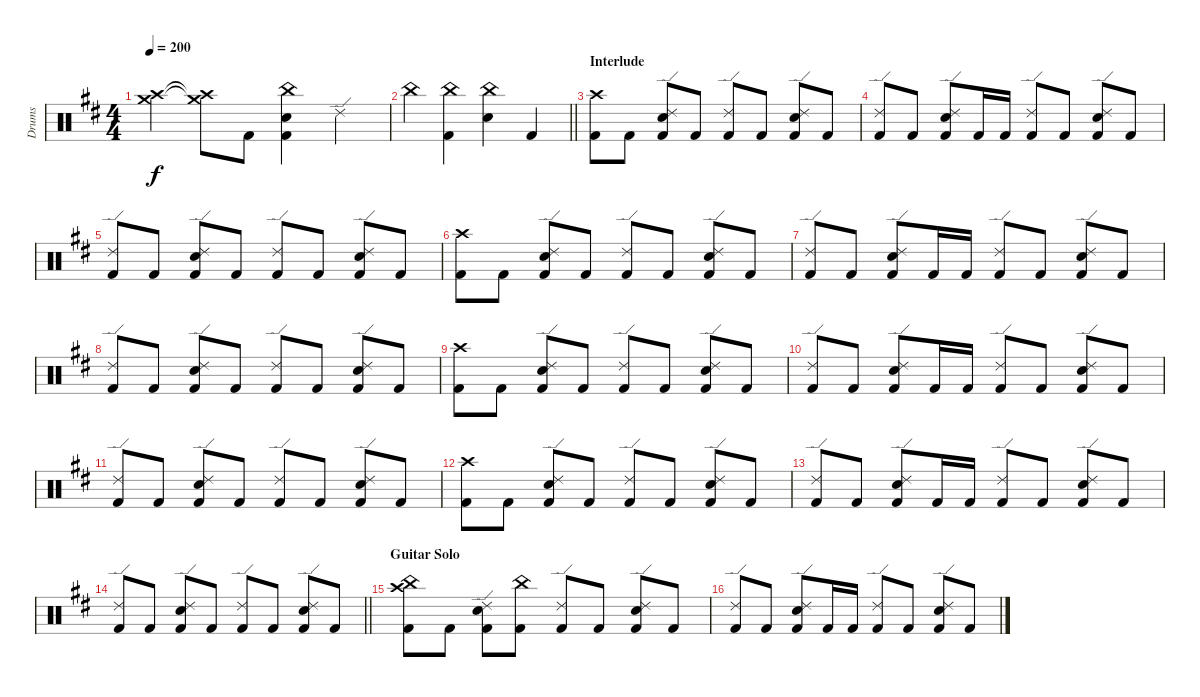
\track ("Drums" "Drums") {instrument percussion}
\staff {score}
\articulation defaults
\ts (4 4)
\tempo 200
\clef neutral
\ks bminor
("Crash high (hit)" "Crash medium (hit)").4{dy f} ("Crash high (hit)"{t} "Crash medium (hit)"{t}).8 "Kick (hit) 2".8 ("Electric Snare (hit)" "Kick (hit) 2" "China (hit)").4 "Ride (edge) 2".4 |
\barLineRight lightlight "China (hit)".4
("Kick (hit) 2" "China (hit)").4 ("Electric Snare (hit)" "China (hit)").4 "Kick (hit) 2".4 |
\section ("" "Interlude")
("Kick (hit) 2" "Crash high (hit)").8 "Kick (hit) 2".8 ("Kick (hit) 2" "Electric Snare (hit)" "Ride (edge) 2").8 "Kick (hit) 2".8 ("Kick (hit) 2" "Ride (edge) 2").8 "Kick (hit) 2".8 ("Kick (hit) 2" "Electric Snare (hit)" "Ride (edge) 2").8 "Kick (hit) 2".8 |
("Kick (hit) 2" "Ride (edge) 2").8 "Kick (hit) 2".8 ("Kick (hit) 2" "Electric Snare (hit)" "Ride (edge) 2").8 "Kick (hit) 2".16 "Kick (hit) 2".16 ("Kick (hit) 2" "Ride (edge) 2").8 "Kick (hit) 2".8 ("Kick (hit) 2" "Electric Snare (hit)" "Ride (edge) 2").8 "Kick (hit) 2".8 |
("Kick (hit) 2" "Ride (edge) 2").8 "Kick (hit) 2".8 ("Kick (hit) 2" "Electric Snare (hit)" "Ride (edge) 2").8 "Kick (hit) 2".8 ("Kick (hit) 2" "Ride (edge) 2").8 "Kick (hit) 2".8 ("Kick (hit) 2" "Electric Snare (hit)" "Ride (edge) 2").8 "Kick (hit) 2".8 |
("Kick (hit) 2" "Crash high (hit)").8 "Kick (hit) 2".8 ("Kick (hit) 2" "Electric Snare (hit)" "Ride (edge) 2").8 "Kick (hit) 2".8 ("Kick (hit) 2" "Ride (edge) 2").8 "Kick (hit) 2".8 ("Kick (hit) 2" "Electric Snare (hit)" "Ride (edge) 2").8 "Kick (hit) 2".8 |
("Kick (hit) 2" "Ride (edge) 2").8 "Kick (hit) 2".8 ("Kick (hit) 2" "Electric Snare (hit)" "Ride (edge) 2").8 "Kick (hit) 2".16 "Kick (hit) 2".16 ("Kick (hit) 2" "Ride (edge) 2").8 "Kick (hit) 2".8 ("Kick (hit) 2" "Electric Snare (hit)" "Ride (edge) 2").8 "Kick (hit) 2".8 |
("Kick (hit) 2" "Ride (edge) 2").8 "Kick (hit) 2".8 ("Kick (hit) 2" "Electric Snare (hit)" "Ride (edge) 2").8 "Kick (hit) 2".8 ("Kick (hit) 2" "Ride (edge) 2").8 "Kick (hit) 2".8 ("Kick (hit) 2" "Electric Snare (hit)" "Ride (edge) 2").8 "Kick (hit) 2".8 |
("Kick (hit) 2" "Crash high (hit)").8 "Kick (hit) 2".8 ("Kick (hit) 2" "Electric Snare (hit)" "Ride (edge) 2").8 "Kick (hit) 2".8 ("Kick (hit) 2" "Ride (edge) 2").8 "Kick (hit) 2".8 ("Kick (hit) 2" "Electric Snare (hit)" "Ride (edge) 2").8 "Kick (hit) 2".8 |
("Kick (hit) 2" "Ride (edge) 2").8 "Kick (hit) 2".8 ("Kick (hit) 2" "Electric Snare (hit)" "Ride (edge) 2").8 "Kick (hit) 2".16 "Kick (hit) 2".16 ("Kick (hit) 2" "Ride (edge) 2").8 "Kick (hit) 2".8 ("Kick (hit) 2" "Electric Snare (hit)" "Ride (edge) 2").8 "Kick (hit) 2".8 |
("Kick (hit) 2" "Ride (edge) 2").8 "Kick (hit) 2".8 ("Kick (hit) 2" "Electric Snare (hit)" "Ride (edge) 2").8 "Kick (hit) 2".8 ("Kick (hit) 2" "Ride (edge) 2").8 "Kick (hit) 2".8 ("Kick (hit) 2" "Electric Snare (hit)" "Ride (edge) 2").8 "Kick (hit) 2".8 |
("Kick (hit) 2" "Crash high (hit)").8 "Kick (hit) 2".8 ("Kick (hit) 2" "Electric Snare (hit)" "Ride (edge) 2").8 "Kick (hit) 2".8 ("Kick (hit) 2" "Ride (edge) 2").8 "Kick (hit) 2".8 ("Kick (hit) 2" "Electric Snare (hit)" "Ride (edge) 2").8 "Kick (hit) 2".8 |
("Kick (hit) 2" "Ride (edge) 2").8 "Kick (hit) 2".8 ("Kick (hit) 2" "Electric Snare (hit)" "Ride (edge) 2").8 "Kick (hit) 2".16 "Kick (hit) 2".16 ("Kick (hit) 2" "Ride (edge) 2").8 "Kick (hit) 2".8 ("Kick (hit) 2" "Electric Snare (hit)" "Ride (edge) 2").8 "Kick (hit) 2".8 |
\barLineRight lightlight
("Kick (hit) 2" "Ride (edge) 2").8 "Kick (hit) 2".8 ("Kick (hit) 2" "Electric Snare (hit)" "Ride (edge) 2").8 "Kick (hit) 2".8 ("Kick (hit) 2" "Ride (edge) 2").8 "Kick (hit) 2".8 ("Kick (hit) 2" "Electric Snare (hit)" "Ride (edge) 2").8 "Kick (hit) 2".8 |
\section ("" "Guitar Solo")
("Kick (hit) 2" "Crash high (hit)" "China (hit)").8 "Kick (hit) 2".8 ("Kick (hit) 2" "Electric Snare (hit)" "Ride (edge) 2").8 ("Kick (hit) 2" "China (hit)").8 ("Kick (hit) 2" "Ride (edge) 2").8 "Kick (hit) 2".8 ("Kick (hit) 2" "Electric Snare (hit)" "Ride (edge) 2").8 "Kick (hit) 2".8 |
("Kick (hit) 2" "Ride (edge) 2").8 "Kick (hit) 2".8 ("Kick (hit) 2" "Electric Snare (hit)" "Ride (edge) 2").8 "Kick (hit) 2".16 "Kick (hit) 2".16 ("Kick (hit) 2" "Ride (edge) 2").8 "Kick (hit) 2".8 ("Kick (hit) 2" "Electric Snare (hit)" "Ride (edge) 2").8 "Kick (hit) 2".8
